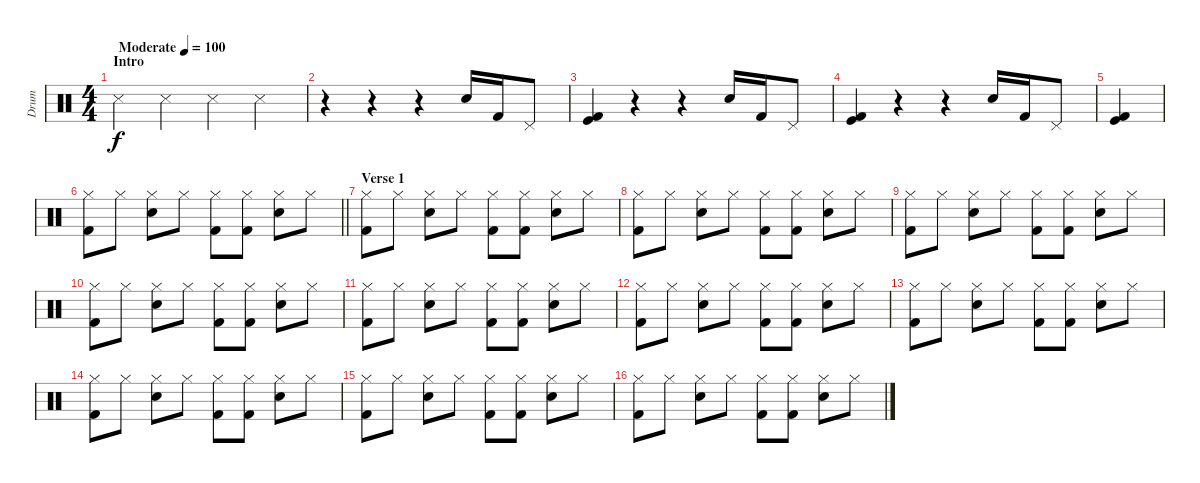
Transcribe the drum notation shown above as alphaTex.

\track ("Drum" "Drum") {instrument percussion}
\staff {score}
\articulation defaults
\ts (4 4)
\section ("" "Intro")
\tempo (100 "Moderate")
\clef neutral
\ks c "Snare (side stick) 3".4{dy f} "Snare (side stick) 3".4 "Snare (side stick) 3".4 "Snare (side stick) 3".4
|
r.4 r.4 r.4 "Snare (hit) 2".16 "Kick (hit) 2".16 "Pedal Hi-Hat (hit)".8 |
("Kick (hit) 2" "Kick (hit)").4 r.4 r.4 "Snare (hit) 2".16 "Kick (hit) 2".16 "Pedal Hi-Hat (hit)".8 |
("Kick (hit) 2" "Kick (hit)").4 r.4 r.4 "Snare (hit) 2".16 "Kick (hit) 2".16 "Pedal Hi-Hat (hit)".8 |
("Kick (hit) 2" "Kick (hit)").4 |
\barLineRight lightlight
("Hi-Hat (closed)" "Kick (hit) 2").8 "Hi-Hat (closed)".8 ("Hi-Hat (closed)" "Snare (hit) 2").8 "Hi-Hat (closed)".8 ("Hi-Hat (closed)" "Kick (hit) 2").8 ("Hi-Hat (closed)" "Kick (hit) 2").8 ("Hi-Hat (closed)" "Snare (hit) 2").8 "Hi-Hat (closed)".8 |
\section ("" "Verse 1")
("Hi-Hat (closed)" "Kick (hit) 2").8 "Hi-Hat (closed)".8 ("Hi-Hat (closed)" "Snare (hit) 2").8 "Hi-Hat (closed)".8 ("Hi-Hat (closed)" "Kick (hit) 2").8 ("Hi-Hat (closed)" "Kick (hit) 2").8 ("Hi-Hat (closed)" "Snare (hit) 2").8 "Hi-Hat (closed)".8 |
("Hi-Hat (closed)" "Kick (hit) 2").8 "Hi-Hat (closed)".8 ("Hi-Hat (closed)" "Snare (hit) 2").8 "Hi-Hat (closed)".8 ("Hi-Hat (closed)" "Kick (hit) 2").8 ("Hi-Hat (closed)" "Kick (hit) 2").8 ("Hi-Hat (closed)" "Snare (hit) 2").8 "Hi-Hat (closed)".8 |
("Hi-Hat (closed)" "Kick (hit) 2").8 "Hi-Hat (closed)".8 ("Hi-Hat (closed)" "Snare (hit) 2").8 "Hi-Hat (closed)".8 ("Hi-Hat (closed)" "Kick (hit) 2").8 ("Hi-Hat (closed)" "Kick (hit) 2").8 ("Hi-Hat (closed)" "Snare (hit) 2").8 "Hi-Hat (closed)".8 |
("Hi-Hat (closed)" "Kick (hit) 2").8 "Hi-Hat (closed)".8 ("Hi-Hat (closed)" "Snare (hit) 2").8 "Hi-Hat (closed)".8 ("Hi-Hat (closed)" "Kick (hit) 2").8 ("Hi-Hat (closed)" "Kick (hit) 2").8 ("Hi-Hat (closed)" "Snare (hit) 2").8 "Hi-Hat (closed)".8 |
("Hi-Hat (closed)" "Kick (hit) 2").8 "Hi-Hat (closed)".8 ("Hi-Hat (closed)" "Snare (hit) 2").8 "Hi-Hat (closed)".8 ("Hi-Hat (closed)" "Kick (hit) 2").8 ("Hi-Hat (closed)" "Kick (hit) 2").8 ("Hi-Hat (closed)" "Snare (hit) 2").8 "Hi-Hat (closed)".8 |
("Hi-Hat (closed)" "Kick (hit) 2").8 "Hi-Hat (closed)".8 ("Hi-Hat (closed)" "Snare (hit) 2").8 "Hi-Hat (closed)".8 ("Hi-Hat (closed)" "Kick (hit) 2").8 ("Hi-Hat (closed)" "Kick (hit) 2").8 ("Hi-Hat (closed)" "Snare (hit) 2").8 "Hi-Hat (closed)".8 |
("Hi-Hat (closed)" "Kick (hit) 2").8 "Hi-Hat (closed)".8 ("Hi-Hat (closed)" "Snare (hit) 2").8 "Hi-Hat (closed)".8 ("Hi-Hat (closed)" "Kick (hit) 2").8 ("Hi-Hat (closed)" "Kick (hit) 2").8 ("Hi-Hat (closed)" "Snare (hit) 2").8 "Hi-Hat (closed)".8 |
("Hi-Hat (closed)" "Kick (hit) 2").8 "Hi-Hat (closed)".8 ("Hi-Hat (closed)" "Snare (hit) 2").8 "Hi-Hat (closed)".8 ("Hi-Hat (closed)" "Kick (hit) 2").8 ("Hi-Hat (closed)" "Kick (hit) 2").8 ("Hi-Hat (closed)" "Snare (hit) 2").8 "Hi-Hat (closed)".8 |
("Hi-Hat (closed)" "Kick (hit) 2").8 "Hi-Hat (closed)".8 ("Hi-Hat (closed)" "Snare (hit) 2").8 "Hi-Hat (closed)".8 ("Hi-Hat (closed)" "Kick (hit) 2").8 ("Hi-Hat (closed)" "Kick (hit) 2").8 ("Hi-Hat (closed)" "Snare (hit) 2").8 "Hi-Hat (closed)".8 |
("Hi-Hat (closed)" "Kick (hit) 2").8 "Hi-Hat (closed)".8 ("Hi-Hat (closed)" "Snare (hit) 2").8 "Hi-Hat (closed)".8 ("Hi-Hat (closed)" "Kick (hit) 2").8 ("Hi-Hat (closed)" "Kick (hit) 2").8 ("Hi-Hat (closed)" "Snare (hit) 2").8 "Hi-Hat (closed)".8
